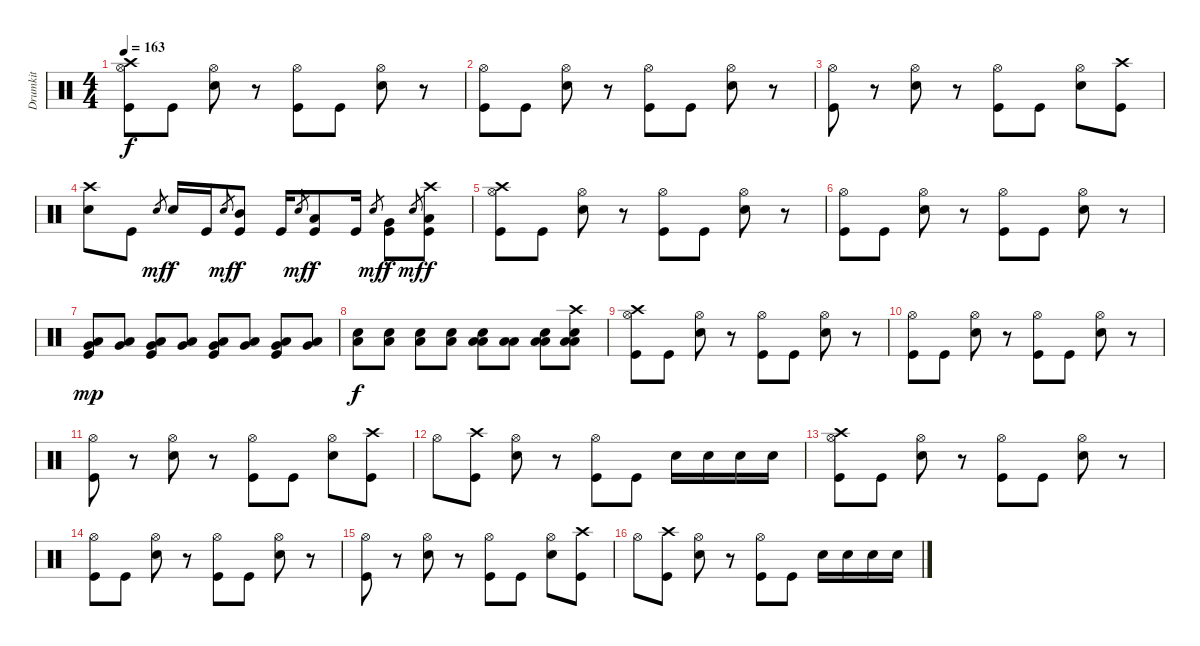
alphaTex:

\track ("Drumkit" "Drumkit") {instrument percussion}
\staff {score}
\articulation defaults
\ts (4 4)
\tempo 163
\clef neutral
\ks c
("Crash high (hit)" "Kick (hit)" "Hi-Hat (open)").8{dy f} "Kick (hit)".8 ("Snare (hit) 2" "Hi-Hat (open)").8 r.8 ("Kick (hit)" "Hi-Hat (open)").8 "Kick (hit)".8 ("Snare (hit) 2" "Hi-Hat (open)").8 r.8 |
("Kick (hit)" "Hi-Hat (open)").8 "Kick (hit)".8 ("Snare (hit) 2" "Hi-Hat (open)").8 r.8 ("Kick (hit)" "Hi-Hat (open)").8 "Kick (hit)".8 ("Snare (hit) 2" "Hi-Hat (open)").8 r.8 |
("Kick (hit)" "Hi-Hat (open)").8 r.8 ("Snare (hit) 2" "Hi-Hat (open)").8 r.8 ("Kick (hit)" "Hi-Hat (open)").8 "Kick (hit)".8 ("Snare (hit) 2" "Hi-Hat (open)").8 ("Kick (hit)" "Crash high (hit)").8 |
("Crash high (hit)" "Snare (hit) 2").8 "Kick (hit)".8 "Snare (hit)".8{gr dy mf} "Snare (hit) 2".16{dy f} "Kick (hit)".16 "Snare (hit)".8{gr dy mf} ("Kick (hit)" "Mid Tom (hit)").8{dy f} "Kick (hit)".16 "Snare (hit)".8{gr dy mf} ("Kick (hit)" "Low Tom (hit)").8{dy f} "Kick (hit)".16 "Snare (hit)".8{gr dy mf} ("Kick (hit)" "Very Low Tom (hit)").8{dy f} "Snare (hit)".8{gr dy mf} ("Crash high (hit)" "Kick (hit)" "Low Floor Tom (hit)").8{dy f} |
("Crash high (hit)" "Kick (hit)" "Hi-Hat (open)").8 "Kick (hit)".8 ("Snare (hit) 2" "Hi-Hat (open)").8 r.8 ("Kick (hit)" "Hi-Hat (open)").8 "Kick (hit)".8 ("Snare (hit) 2" "Hi-Hat (open)").8 r.8 |
("Kick (hit)" "Hi-Hat (open)").8 "Kick (hit)".8 ("Snare (hit) 2" "Hi-Hat (open)").8 r.8 ("Kick (hit)" "Hi-Hat (open)").8 "Kick (hit)".8 ("Snare (hit) 2" "Hi-Hat (open)").8 r.8 |
("Very Low Tom (hit)" "Low Floor Tom (hit)" "Kick (hit)").8{dy mp} ("Very Low Tom (hit)" "Low Floor Tom (hit)").8 ("Very Low Tom (hit)" "Low Floor Tom (hit)" "Kick (hit)").8 ("Very Low Tom (hit)" "Low Floor Tom (hit)").8 ("Very Low Tom (hit)" "Low Floor Tom (hit)" "Kick (hit)").8 ("Very Low Tom (hit)" "Low Floor Tom (hit)").8 ("Very Low Tom (hit)" "Low Floor Tom (hit)" "Kick (hit)").8 ("Very Low Tom (hit)" "Low Floor Tom (hit)").8 |
("Snare (hit) 2" "Low Floor Tom (hit)").8{dy f} ("Snare (hit) 2" "Low Floor Tom (hit)").8 ("Snare (hit) 2" "Low Floor Tom (hit)").8 ("Snare (hit) 2" "Low Floor Tom (hit)").8 ("Snare (hit) 2" "Low Tom (hit)" "Low Floor Tom (hit)").8 ("Low Tom (hit)" "Low Floor Tom (hit)").8 ("Snare (hit) 2" "Low Tom (hit)" "Low Floor Tom (hit)").8 ("Crash high (hit)" "Snare (hit) 2" "Low Tom (hit)" "Low Floor Tom (hit)").8 |
("Crash high (hit)" "Kick (hit)" "Hi-Hat (open)").8 "Kick (hit)".8 ("Snare (hit) 2" "Hi-Hat (open)").8 r.8 ("Kick (hit)" "Hi-Hat (open)").8 "Kick (hit)".8 ("Snare (hit) 2" "Hi-Hat (open)").8 r.8 |
("Kick (hit)" "Hi-Hat (open)").8 "Kick (hit)".8 ("Snare (hit) 2" "Hi-Hat (open)").8 r.8 ("Kick (hit)" "Hi-Hat (open)").8 "Kick (hit)".8 ("Snare (hit) 2" "Hi-Hat (open)").8 r.8 |
("Kick (hit)" "Hi-Hat (open)").8 r.8 ("Snare (hit) 2" "Hi-Hat (open)").8 r.8 ("Kick (hit)" "Hi-Hat (open)").8 "Kick (hit)".8 ("Snare (hit) 2" "Hi-Hat (open)").8 ("Kick (hit)" "Crash high (hit)").8 |
"Hi-Hat (open)".8 ("Kick (hit)" "Crash high (hit)").8 ("Snare (hit) 2" "Hi-Hat (open)").8 r.8 ("Kick (hit)" "Hi-Hat (open)").8 "Kick (hit)".8 "Snare (hit) 2".16 "Snare (hit) 2".16 "Snare (hit) 2".16 "Snare (hit) 2".16 |
("Crash high (hit)" "Kick (hit)" "Hi-Hat (open)").8 "Kick (hit)".8 ("Snare (hit) 2" "Hi-Hat (open)").8 r.8 ("Kick (hit)" "Hi-Hat (open)").8 "Kick (hit)".8 ("Snare (hit) 2" "Hi-Hat (open)").8 r.8 |
("Kick (hit)" "Hi-Hat (open)").8 "Kick (hit)".8 ("Snare (hit) 2" "Hi-Hat (open)").8 r.8 ("Kick (hit)" "Hi-Hat (open)").8 "Kick (hit)".8 ("Snare (hit) 2" "Hi-Hat (open)").8 r.8 |
("Kick (hit)" "Hi-Hat (open)").8 r.8 ("Snare (hit) 2" "Hi-Hat (open)").8 r.8 ("Kick (hit)" "Hi-Hat (open)").8 "Kick (hit)".8 ("Snare (hit) 2" "Hi-Hat (open)").8 ("Kick (hit)" "Crash high (hit)").8 |
"Hi-Hat (open)".8 ("Kick (hit)" "Crash high (hit)").8 ("Snare (hit) 2" "Hi-Hat (open)").8 r.8 ("Kick (hit)" "Hi-Hat (open)").8 "Kick (hit)".8 "Snare (hit) 2".16 "Snare (hit) 2".16 "Snare (hit) 2".16 "Snare (hit) 2".16
